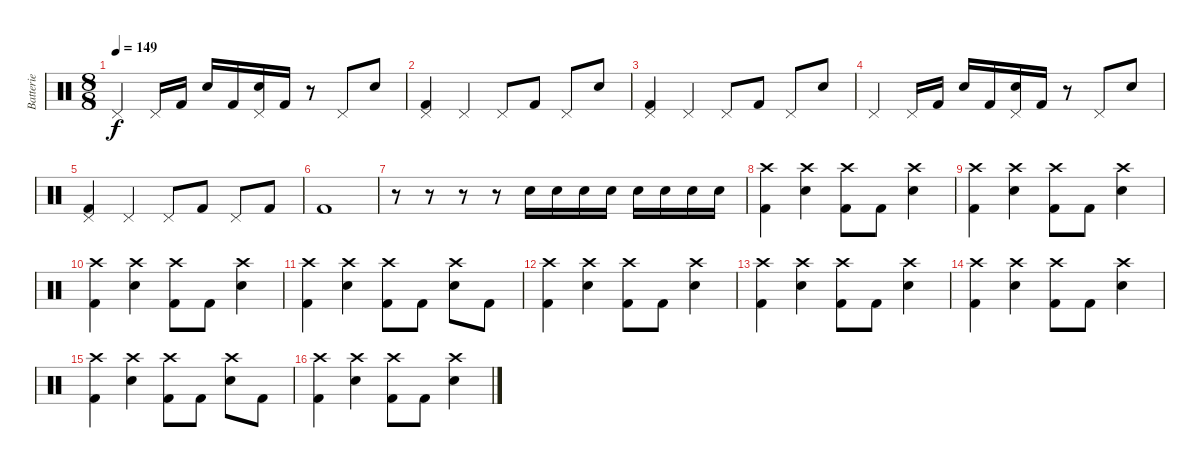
\track ("Batterie" "Batterie") {instrument percussion}
\staff {score}
\articulation defaults
\ts (8 8)
\tempo 149
\clef neutral
\ks c "Pedal Hi-Hat (hit)".4{dy f} "Pedal Hi-Hat (hit)".16 "Kick (hit) 2".16 "Snare (hit) 2".16 "Kick (hit) 2".16
("Pedal Hi-Hat (hit)" "Snare (hit) 2").16 "Kick (hit) 2".16 r.8 "Pedal Hi-Hat (hit)".8 "Snare (hit) 2".8 |
("Pedal Hi-Hat (hit)" "Kick (hit) 2").4 "Pedal Hi-Hat (hit)".4 "Pedal Hi-Hat (hit)".8 "Kick (hit) 2".8 "Pedal Hi-Hat (hit)".8 "Snare (hit) 2".8 |
("Pedal Hi-Hat (hit)" "Kick (hit) 2").4 "Pedal Hi-Hat (hit)".4 "Pedal Hi-Hat (hit)".8 "Kick (hit) 2".8 "Pedal Hi-Hat (hit)".8 "Snare (hit) 2".8 |
"Pedal Hi-Hat (hit)".4 "Pedal Hi-Hat (hit)".16 "Kick (hit) 2".16 "Snare (hit) 2".16 "Kick (hit) 2".16 ("Pedal Hi-Hat (hit)" "Snare (hit) 2").16 "Kick (hit) 2".16 r.8 "Pedal Hi-Hat (hit)".8 "Snare (hit) 2".8 |
("Pedal Hi-Hat (hit)" "Kick (hit) 2").4 "Pedal Hi-Hat (hit)".4 "Pedal Hi-Hat (hit)".8 "Kick (hit) 2".8 "Pedal Hi-Hat (hit)".8 "Kick (hit) 2".8 |
"Kick (hit) 2".1 |
r.8 r.8 r.8 r.8 "Electric Snare (hit)".16 "Electric Snare (hit)".16 "Electric Snare (hit)".16 "Electric Snare (hit)".16 "Electric Snare (hit)".16 "Electric Snare (hit)".16 "Electric Snare (hit)".16 "Electric Snare (hit)".16 |
("Crash high (hit)" "Kick (hit) 2").4 ("Crash high (hit)" "Snare (hit) 2").4 ("Crash high (hit)" "Kick (hit) 2").8 "Kick (hit) 2".8 ("Crash high (hit)" "Snare (hit) 2").4 |
("Crash high (hit)" "Kick (hit) 2").4 ("Crash high (hit)" "Snare (hit) 2").4 ("Crash high (hit)" "Kick (hit) 2").8 "Kick (hit) 2".8 ("Crash high (hit)" "Snare (hit) 2").4 |
("Crash high (hit)" "Kick (hit) 2").4 ("Crash high (hit)" "Snare (hit) 2").4 ("Crash high (hit)" "Kick (hit) 2").8 "Kick (hit) 2".8 ("Crash high (hit)" "Snare (hit) 2").4 |
("Crash high (hit)" "Kick (hit) 2").4 ("Crash high (hit)" "Snare (hit) 2").4 ("Crash high (hit)" "Kick (hit) 2").8 "Kick (hit) 2".8 ("Crash high (hit)" "Snare (hit) 2").8 "Kick (hit) 2".8 |
("Crash high (hit)" "Kick (hit) 2").4 ("Crash high (hit)" "Snare (hit) 2").4 ("Crash high (hit)" "Kick (hit) 2").8 "Kick (hit) 2".8 ("Crash high (hit)" "Snare (hit) 2").4 |
("Crash high (hit)" "Kick (hit) 2").4 ("Crash high (hit)" "Snare (hit) 2").4 ("Crash high (hit)" "Kick (hit) 2").8 "Kick (hit) 2".8 ("Crash high (hit)" "Snare (hit) 2").4 |
("Crash high (hit)" "Kick (hit) 2").4 ("Crash high (hit)" "Snare (hit) 2").4 ("Crash high (hit)" "Kick (hit) 2").8 "Kick (hit) 2".8 ("Crash high (hit)" "Snare (hit) 2").4 |
("Crash high (hit)" "Kick (hit) 2").4 ("Crash high (hit)" "Snare (hit) 2").4 ("Crash high (hit)" "Kick (hit) 2").8 "Kick (hit) 2".8 ("Crash high (hit)" "Snare (hit) 2").8 "Kick (hit) 2".8 |
("Crash high (hit)" "Kick (hit) 2").4 ("Crash high (hit)" "Snare (hit) 2").4 ("Crash high (hit)" "Kick (hit) 2").8 "Kick (hit) 2".8 ("Crash high (hit)" "Snare (hit) 2").4
